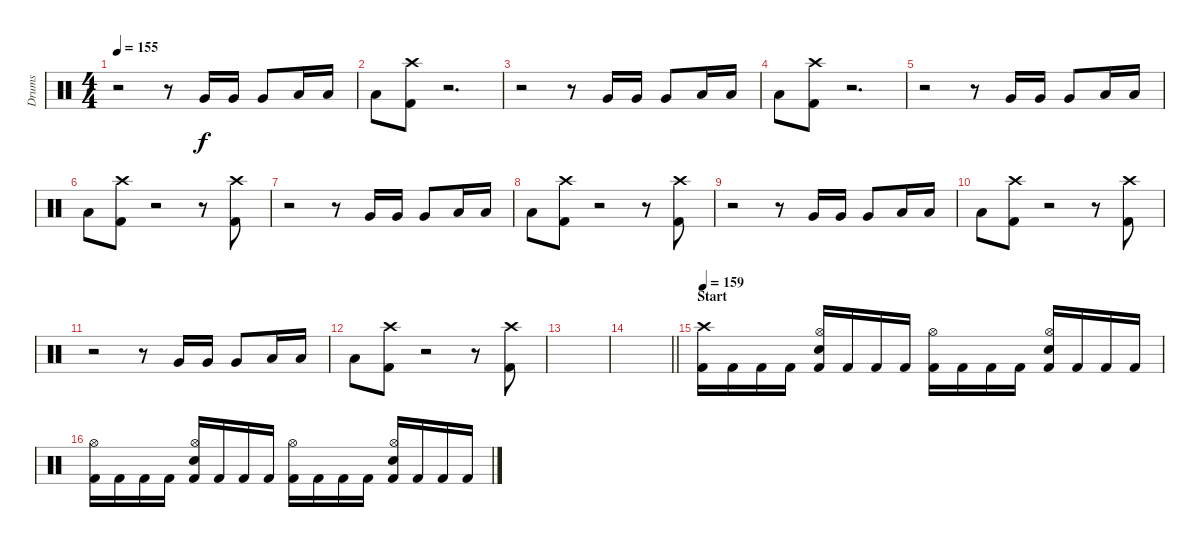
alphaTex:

\track ("Drums" "Drums") {instrument percussion}
\staff {score}
\articulation defaults
\ts (4 4)
\tempo 155
\clef neutral
\ks c
r.2{dy f} r.8 "Very Low Tom (hit)".16 "Very Low Tom (hit)".16 "Very Low Tom (hit)".8 "Low Floor Tom (hit)".16 "Low Floor Tom (hit)".16 |
"Low Floor Tom (hit)".8 ("Crash high (hit)" "Kick (hit) 2").8 r.2{d} |
r.2 r.8 "Very Low Tom (hit)".16 "Very Low Tom (hit)".16 "Very Low Tom (hit)".8 "Low Floor Tom (hit)".16 "Low Floor Tom (hit)".16 |
"Low Floor Tom (hit)".8 ("Crash high (hit)" "Kick (hit) 2").8 r.2{d} |
r.2 r.8 "Very Low Tom (hit)".16 "Very Low Tom (hit)".16 "Very Low Tom (hit)".8 "Low Floor Tom (hit)".16 "Low Floor Tom (hit)".16 |
"Low Floor Tom (hit)".8 ("Crash high (hit)" "Kick (hit) 2").8 r.2 r.8 ("Crash high (hit)" "Kick (hit) 2").8 |
r.2 r.8 "Very Low Tom (hit)".16 "Very Low Tom (hit)".16 "Very Low Tom (hit)".8 "Low Floor Tom (hit)".16 "Low Floor Tom (hit)".16 |
"Low Floor Tom (hit)".8 ("Crash high (hit)" "Kick (hit) 2").8 r.2 r.8 ("Crash high (hit)" "Kick (hit) 2").8 |
r.2 r.8 "Very Low Tom (hit)".16 "Very Low Tom (hit)".16 "Very Low Tom (hit)".8 "Low Floor Tom (hit)".16 "Low Floor Tom (hit)".16 |
"Low Floor Tom (hit)".8 ("Crash high (hit)" "Kick (hit) 2").8 r.2 r.8 ("Crash high (hit)" "Kick (hit) 2").8 |
r.2 r.8 "Very Low Tom (hit)".16 "Very Low Tom (hit)".16 "Very Low Tom (hit)".8 "Low Floor Tom (hit)".16 "Low Floor Tom (hit)".16 |
"Low Floor Tom (hit)".8 ("Crash high (hit)" "Kick (hit) 2").8 r.2 r.8 ("Crash high (hit)" "Kick (hit) 2").8 |
|
\barLineRight lightlight
|
\section ("" "Start")
\tempo 159
("Crash high (hit)" "Kick (hit) 2").16 "Kick (hit) 2".16 "Kick (hit) 2".16 "Kick (hit) 2".16 ("Hi-Hat (open)" "Snare (hit) 2" "Kick (hit) 2").16 "Kick (hit) 2".16 "Kick (hit) 2".16 "Kick (hit) 2".16 ("Hi-Hat (open)" "Kick (hit) 2").16 "Kick (hit) 2".16 "Kick (hit) 2".16 "Kick (hit) 2".16 ("Hi-Hat (open)" "Snare (hit) 2" "Kick (hit) 2").16 "Kick (hit) 2".16 "Kick (hit) 2".16 "Kick (hit) 2".16 |
("Hi-Hat (open)" "Kick (hit) 2").16 "Kick (hit) 2".16 "Kick (hit) 2".16 "Kick (hit) 2".16 ("Hi-Hat (open)" "Snare (hit) 2" "Kick (hit) 2").16 "Kick (hit) 2".16 "Kick (hit) 2".16 "Kick (hit) 2".16 ("Hi-Hat (open)" "Kick (hit) 2").16 "Kick (hit) 2".16 "Kick (hit) 2".16 "Kick (hit) 2".16 ("Hi-Hat (open)" "Snare (hit) 2" "Kick (hit) 2").16 "Kick (hit) 2".16 "Kick (hit) 2".16 "Kick (hit) 2".16
